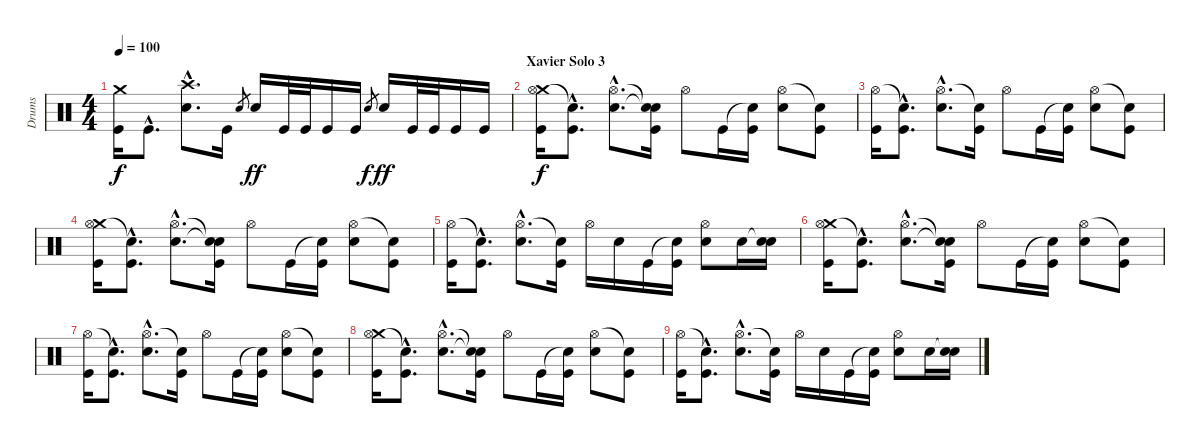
\track ("Drums" "Drums") {instrument percussion}
\staff {score}
\articulation defaults
\ts (4 4)
\tempo 100
\clef neutral
\ks c
("Crash medium (hit)" "Kick (hit)").16{dy f} "Kick (hit)"{hac}.8{d} ("Crash high (hit)"{hac} "Electric Snare (hit)"{hac}).8{d} "Kick (hit)".16 "Electric Snare (hit)".8{gr} "Electric Snare (hit)".16{dy ff} "Kick (hit)".32 "Kick (hit)".32 "Kick (hit)".16 "Kick (hit)".16 "Electric Snare (hit)".8{gr dy f} "Electric Snare (hit)".16{dy ff} "Kick (hit)".32 "Kick (hit)".32 "Kick (hit)".16 "Kick (hit)".16 |
\section ("" "Xavier Solo 3")
("Crash medium (hit)" "Hi-Hat (open)" "Kick (hit)").16{dy f} ("Snare (hit)"{hac t} "Kick (hit)"{hac}).8{d} ("Hi-Hat (open)"{hac} "Electric Snare (hit)"{hac}).8{d} ("Snare (hit)"{t} "Snare (hit)"{t} "Kick (hit)").16 "Hi-Hat (open)".8 "Kick (hit)".16 ("Snare (hit)"{t} "Kick (hit)").16 ("Hi-Hat (open)" "Electric Snare (hit)").8 ("Snare (hit)"{t} "Kick (hit)").8 |
("Hi-Hat (open)" "Kick (hit)").16 ("Snare (hit)"{hac t} "Kick (hit)"{hac}).8{d} ("Hi-Hat (open)"{hac} "Electric Snare (hit)"{hac}).8{d} ("Snare (hit)"{t} "Kick (hit)").16 "Hi-Hat (open)".8 "Kick (hit)".16 ("Snare (hit)"{t} "Kick (hit)").16 ("Hi-Hat (open)" "Electric Snare (hit)").8 ("Snare (hit)"{t} "Kick (hit)").8 |
("Crash medium (hit)" "Hi-Hat (open)" "Kick (hit)").16 ("Snare (hit)"{hac t} "Kick (hit)"{hac}).8{d} ("Hi-Hat (open)"{hac} "Electric Snare (hit)"{hac}).8{d} ("Snare (hit)"{t} "Snare (hit)"{t} "Kick (hit)").16 "Hi-Hat (open)".8 "Kick (hit)".16 ("Snare (hit)"{t} "Kick (hit)").16 ("Hi-Hat (open)" "Electric Snare (hit)").8 ("Snare (hit)"{t} "Kick (hit)").8 |
("Hi-Hat (open)" "Kick (hit)").16 ("Snare (hit)"{hac t} "Kick (hit)"{hac}).8{d} ("Hi-Hat (open)"{hac} "Electric Snare (hit)"{hac}).8{d} ("Snare (hit)"{t} "Kick (hit)").16 "Hi-Hat (open)".16 "Electric Snare (hit)".16 "Kick (hit)".16 ("Snare (hit)"{t} "Kick (hit)").16 ("Hi-Hat (open)" "Electric Snare (hit)").8 "Electric Snare (hit)".16 ("Snare (hit)"{t} "Electric Snare (hit)").16 |
("Crash medium (hit)" "Hi-Hat (open)" "Kick (hit)").16 ("Snare (hit)"{hac t} "Kick (hit)"{hac}).8{d} ("Hi-Hat (open)"{hac} "Electric Snare (hit)"{hac}).8{d} ("Snare (hit)"{t} "Snare (hit)"{t} "Kick (hit)").16 "Hi-Hat (open)".8 "Kick (hit)".16 ("Snare (hit)"{t} "Kick (hit)").16 ("Hi-Hat (open)" "Electric Snare (hit)").8 ("Snare (hit)"{t} "Kick (hit)").8 |
("Hi-Hat (open)" "Kick (hit)").16 ("Snare (hit)"{hac t} "Kick (hit)"{hac}).8{d} ("Hi-Hat (open)"{hac} "Electric Snare (hit)"{hac}).8{d} ("Snare (hit)"{t} "Kick (hit)").16 "Hi-Hat (open)".8 "Kick (hit)".16 ("Snare (hit)"{t} "Kick (hit)").16 ("Hi-Hat (open)" "Electric Snare (hit)").8 ("Snare (hit)"{t} "Kick (hit)").8 |
("Crash medium (hit)" "Hi-Hat (open)" "Kick (hit)").16 ("Snare (hit)"{hac t} "Kick (hit)"{hac}).8{d} ("Hi-Hat (open)"{hac} "Electric Snare (hit)"{hac}).8{d} ("Snare (hit)"{t} "Snare (hit)"{t} "Kick (hit)").16 "Hi-Hat (open)".8 "Kick (hit)".16 ("Snare (hit)"{t} "Kick (hit)").16 ("Hi-Hat (open)" "Electric Snare (hit)").8 ("Snare (hit)"{t} "Kick (hit)").8 |
("Hi-Hat (open)" "Kick (hit)").16 ("Snare (hit)"{hac t} "Kick (hit)"{hac}).8{d} ("Hi-Hat (open)"{hac} "Electric Snare (hit)"{hac}).8{d} ("Snare (hit)"{t} "Kick (hit)").16 "Hi-Hat (open)".16 "Electric Snare (hit)".16 "Kick (hit)".16 ("Snare (hit)"{t} "Kick (hit)").16 ("Hi-Hat (open)" "Electric Snare (hit)").8 "Electric Snare (hit)".16 ("Snare (hit)"{t} "Electric Snare (hit)").16
